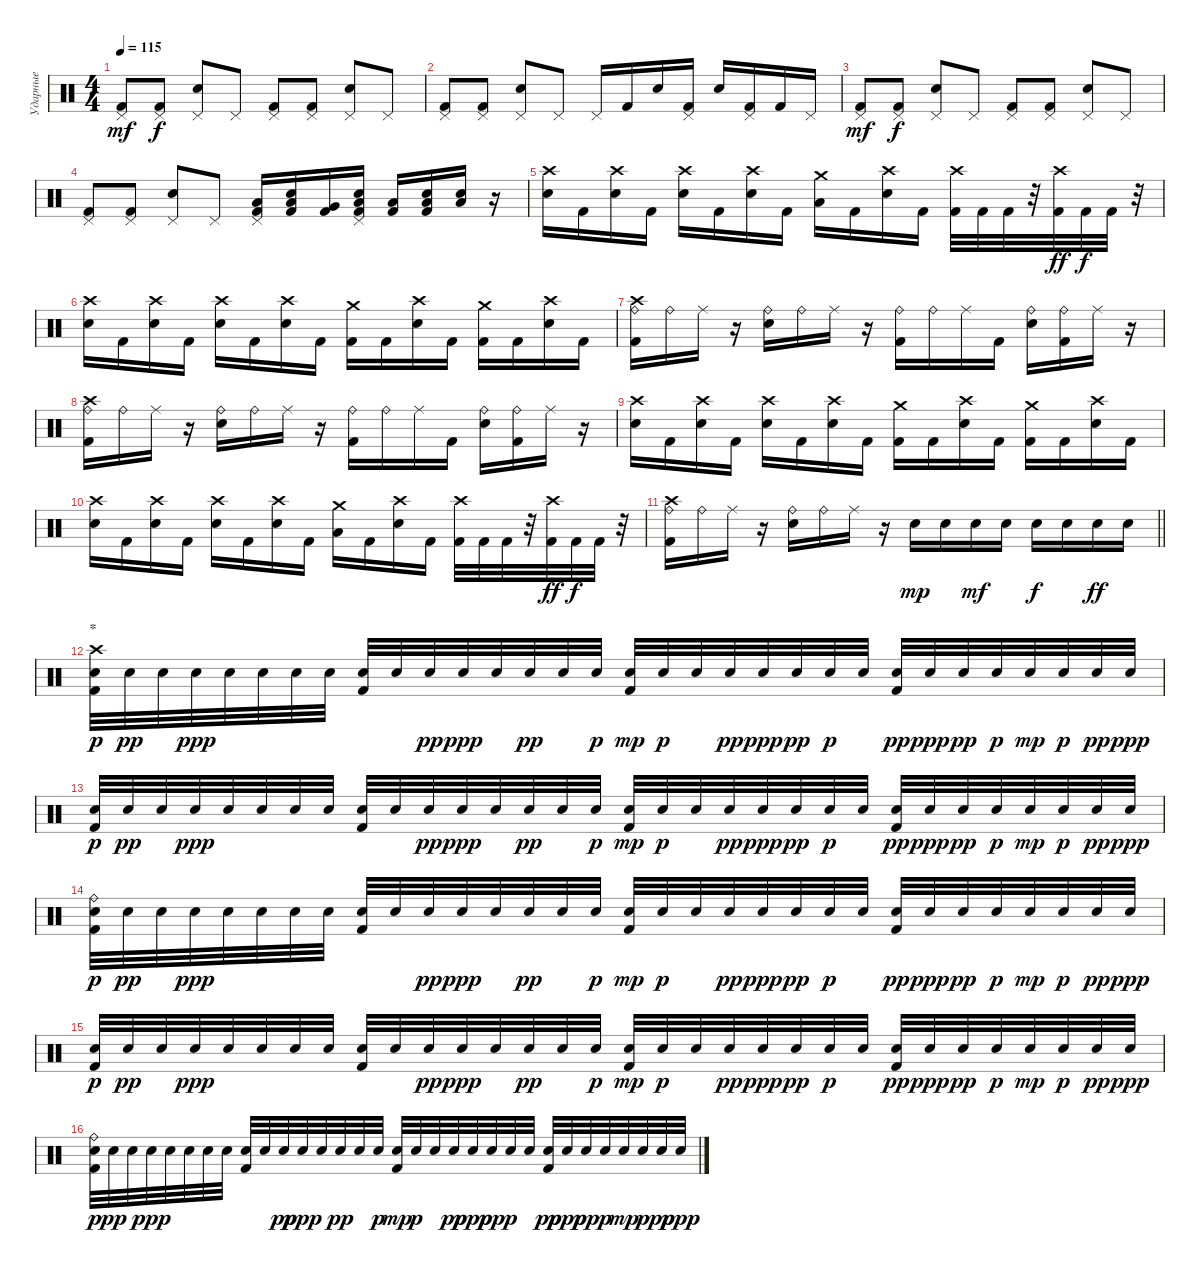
\track ("Ударные" "Ударные") {instrument percussion}
\staff {score}
\articulation defaults
\ts (4 4)
\tempo 115
\clef neutral
\ks c
("Pedal Hi-Hat (hit)" "Kick (hit) 2").8{dy mf} ("Pedal Hi-Hat (hit)" "Kick (hit) 2").8{dy f} ("Pedal Hi-Hat (hit)" "Electric Snare (hit)").8 "Pedal Hi-Hat (hit)".8 ("Pedal Hi-Hat (hit)" "Kick (hit) 2").8 ("Pedal Hi-Hat (hit)" "Kick (hit) 2").8 ("Pedal Hi-Hat (hit)" "Electric Snare (hit)").8 "Pedal Hi-Hat (hit)".8 |
("Pedal Hi-Hat (hit)" "Kick (hit) 2").8 ("Pedal Hi-Hat (hit)" "Kick (hit) 2").8 ("Pedal Hi-Hat (hit)" "Electric Snare (hit)").8 "Pedal Hi-Hat (hit)".8 "Pedal Hi-Hat (hit)".16 "Kick (hit) 2".16 "Electric Snare (hit)".16 ("Pedal Hi-Hat (hit)" "Kick (hit) 2").16 "Electric Snare (hit)".16 ("Pedal Hi-Hat (hit)" "Kick (hit) 2").16 "Kick (hit) 2".16 "Pedal Hi-Hat (hit)".16 |
("Pedal Hi-Hat (hit)" "Kick (hit) 2").8{dy mf} ("Pedal Hi-Hat (hit)" "Kick (hit) 2").8{dy f} ("Pedal Hi-Hat (hit)" "Electric Snare (hit)").8 "Pedal Hi-Hat (hit)".8 ("Pedal Hi-Hat (hit)" "Kick (hit) 2").8 ("Pedal Hi-Hat (hit)" "Kick (hit) 2").8 ("Pedal Hi-Hat (hit)" "Electric Snare (hit)").8 "Pedal Hi-Hat (hit)".8 |
("Pedal Hi-Hat (hit)" "Kick (hit) 2").8 ("Pedal Hi-Hat (hit)" "Kick (hit) 2").8 ("Pedal Hi-Hat (hit)" "Electric Snare (hit)").8 "Pedal Hi-Hat (hit)".8 ("Pedal Hi-Hat (hit)" "Low Floor Tom (hit)" "Kick (hit) 2").16 ("Low Floor Tom (hit)" "Electric Snare (hit)" "Kick (hit) 2").16 ("Very Low Tom (hit)" "Kick (hit) 2").16 ("Pedal Hi-Hat (hit)" "Low Floor Tom (hit)" "Electric Snare (hit)" "Kick (hit) 2").16 ("Low Floor Tom (hit)" "Kick (hit) 2").16 ("Low Floor Tom (hit)" "Electric Snare (hit)" "Kick (hit) 2").16 ("Low Floor Tom (hit)" "Electric Snare (hit)").16 r.16 |
("Crash high (hit)" "Electric Snare (hit)").16 "Kick (hit) 2".16 ("Crash high (hit)" "Electric Snare (hit)").16 "Kick (hit) 2".16 ("Crash high (hit)" "Electric Snare (hit)").16 "Kick (hit) 2".16 ("Crash high (hit)" "Electric Snare (hit)").16 "Kick (hit) 2".16 ("Crash medium (hit)" "Low Floor Tom (hit)").16 "Kick (hit) 2".16 ("Crash high (hit)" "Electric Snare (hit)").16 "Kick (hit) 2".16 ("Crash high (hit)" "Kick (hit) 2").32 "Kick (hit) 2".32 "Kick (hit) 2".32 r.32 ("Crash high (hit)" "Kick (hit) 2").32{dy ff} "Kick (hit) 2".32{dy f} "Kick (hit) 2".32 r.32 |
("Crash high (hit)" "Electric Snare (hit)").16 "Kick (hit) 2".16 ("Crash high (hit)" "Electric Snare (hit)").16 "Kick (hit) 2".16 ("Crash high (hit)" "Electric Snare (hit)").16 "Kick (hit) 2".16 ("Crash high (hit)" "Electric Snare (hit)").16 "Kick (hit) 2".16 ("Crash medium (hit)" "Kick (hit) 2").16 "Kick (hit) 2".16 ("Crash high (hit)" "Electric Snare (hit)").16 "Kick (hit) 2".16 ("Crash medium (hit)" "Kick (hit) 2").16 "Kick (hit) 2".16 ("Crash high (hit)" "Electric Snare (hit)").16 "Kick (hit) 2".16 |
("Crash high (hit)" "Ride (bell)" "Kick (hit) 2").16 "Ride (bell)".16 "Ride (middle)".16 r.16 ("Ride (bell)" "Electric Snare (hit)").16 "Ride (bell)".16 "Ride (middle)".16 r.16 ("Ride (bell)" "Kick (hit) 2").16 "Ride (bell)".16 "Ride (middle)".16 "Kick (hit) 2".16 ("Ride (bell)" "Electric Snare (hit)").16 ("Ride (bell)" "Kick (hit) 2").16 "Ride (middle)".16 r.16 |
("Crash high (hit)" "Ride (bell)" "Kick (hit) 2").16 "Ride (bell)".16 "Ride (middle)".16 r.16 ("Ride (bell)" "Electric Snare (hit)").16 "Ride (bell)".16 "Ride (middle)".16 r.16 ("Ride (bell)" "Kick (hit) 2").16 "Ride (bell)".16 "Ride (middle)".16 "Kick (hit) 2".16 ("Ride (bell)" "Electric Snare (hit)").16 ("Ride (bell)" "Kick (hit) 2").16 "Ride (middle)".16 r.16 |
("Crash high (hit)" "Electric Snare (hit)").16 "Kick (hit) 2".16 ("Crash high (hit)" "Electric Snare (hit)").16 "Kick (hit) 2".16 ("Crash high (hit)" "Electric Snare (hit)").16 "Kick (hit) 2".16 ("Crash high (hit)" "Electric Snare (hit)").16 "Kick (hit) 2".16 ("Crash medium (hit)" "Kick (hit) 2").16 "Kick (hit) 2".16 ("Crash high (hit)" "Electric Snare (hit)").16 "Kick (hit) 2".16 ("Crash medium (hit)" "Kick (hit) 2").16 "Kick (hit) 2".16 ("Crash high (hit)" "Electric Snare (hit)").16 "Kick (hit) 2".16 |
("Crash high (hit)" "Electric Snare (hit)").16 "Kick (hit) 2".16 ("Crash high (hit)" "Electric Snare (hit)").16 "Kick (hit) 2".16 ("Crash high (hit)" "Electric Snare (hit)").16 "Kick (hit) 2".16 ("Crash high (hit)" "Electric Snare (hit)").16 "Kick (hit) 2".16 ("Crash medium (hit)" "Low Floor Tom (hit)").16 "Kick (hit) 2".16 ("Crash high (hit)" "Electric Snare (hit)").16 "Kick (hit) 2".16 ("Crash high (hit)" "Kick (hit) 2").32 "Kick (hit) 2".32 "Kick (hit) 2".32 r.32 ("Crash high (hit)" "Kick (hit) 2").32{dy ff} "Kick (hit) 2".32{dy f} "Kick (hit) 2".32 r.32 |
\barLineRight lightlight
("Crash high (hit)" "Ride (bell)" "Kick (hit) 2").16 "Ride (bell)".16 "Ride (middle)".16 r.16 ("Ride (bell)" "Electric Snare (hit)").16 "Ride (bell)".16 "Ride (middle)".16 r.16 "Electric Snare (hit)".16{dy mp} "Electric Snare (hit)".16 "Electric Snare (hit)".16{dy mf} "Electric Snare (hit)".16 "Electric Snare (hit)".16{dy f} "Electric Snare (hit)".16 "Electric Snare (hit)".16{dy ff} "Electric Snare (hit)".16 |
\section ("" "*")
("Crash high (hit)" "Electric Snare (hit)" "Kick (hit) 2").32{dy p} "Electric Snare (hit)".32{dy pp} "Electric Snare (hit)".32 "Electric Snare (hit)".32{dy ppp} "Electric Snare (hit)".32 "Electric Snare (hit)".32 "Electric Snare (hit)".32 "Electric Snare (hit)".32 ("Electric Snare (hit)" "Kick (hit) 2").32 "Electric Snare (hit)".32 "Electric Snare (hit)".32{dy pp} "Electric Snare (hit)".32{dy ppp} "Electric Snare (hit)".32 "Electric Snare (hit)".32{dy pp} "Electric Snare (hit)".32 "Electric Snare (hit)".32{dy p} ("Electric Snare (hit)" "Kick (hit) 2").32{dy mp} "Electric Snare (hit)".32{dy p} "Electric Snare (hit)".32 "Electric Snare (hit)".32{dy pp} "Electric Snare (hit)".32{dy ppp} "Electric Snare (hit)".32{dy pp} "Electric Snare (hit)".32{dy p} "Electric Snare (hit)".32 ("Electric Snare (hit)" "Kick (hit) 2").32{dy pp} "Electric Snare (hit)".32{dy ppp} "Electric Snare (hit)".32{dy pp} "Electric Snare (hit)".32{dy p} "Electric Snare (hit)".32{dy mp} "Electric Snare (hit)".32{dy p} "Electric Snare (hit)".32{dy pp} "Electric Snare (hit)".32{dy ppp} |
("Electric Snare (hit)" "Kick (hit) 2").32{dy p} "Electric Snare (hit)".32{dy pp} "Electric Snare (hit)".32 "Electric Snare (hit)".32{dy ppp} "Electric Snare (hit)".32 "Electric Snare (hit)".32 "Electric Snare (hit)".32 "Electric Snare (hit)".32 ("Electric Snare (hit)" "Kick (hit) 2").32 "Electric Snare (hit)".32 "Electric Snare (hit)".32{dy pp} "Electric Snare (hit)".32{dy ppp} "Electric Snare (hit)".32 "Electric Snare (hit)".32{dy pp} "Electric Snare (hit)".32 "Electric Snare (hit)".32{dy p} ("Electric Snare (hit)" "Kick (hit) 2").32{dy mp} "Electric Snare (hit)".32{dy p} "Electric Snare (hit)".32 "Electric Snare (hit)".32{dy pp} "Electric Snare (hit)".32{dy ppp} "Electric Snare (hit)".32{dy pp} "Electric Snare (hit)".32{dy p} "Electric Snare (hit)".32 ("Electric Snare (hit)" "Kick (hit) 2").32{dy pp} "Electric Snare (hit)".32{dy ppp} "Electric Snare (hit)".32{dy pp} "Electric Snare (hit)".32{dy p} "Electric Snare (hit)".32{dy mp} "Electric Snare (hit)".32{dy p} "Electric Snare (hit)".32{dy pp} "Electric Snare (hit)".32{dy ppp} |
("Ride (bell)" "Electric Snare (hit)" "Kick (hit) 2").32{dy p} "Electric Snare (hit)".32{dy pp} "Electric Snare (hit)".32 "Electric Snare (hit)".32{dy ppp} "Electric Snare (hit)".32 "Electric Snare (hit)".32 "Electric Snare (hit)".32 "Electric Snare (hit)".32 ("Electric Snare (hit)" "Kick (hit) 2").32 "Electric Snare (hit)".32 "Electric Snare (hit)".32{dy pp} "Electric Snare (hit)".32{dy ppp} "Electric Snare (hit)".32 "Electric Snare (hit)".32{dy pp} "Electric Snare (hit)".32 "Electric Snare (hit)".32{dy p} ("Electric Snare (hit)" "Kick (hit) 2").32{dy mp} "Electric Snare (hit)".32{dy p} "Electric Snare (hit)".32 "Electric Snare (hit)".32{dy pp} "Electric Snare (hit)".32{dy ppp} "Electric Snare (hit)".32{dy pp} "Electric Snare (hit)".32{dy p} "Electric Snare (hit)".32 ("Electric Snare (hit)" "Kick (hit) 2").32{dy pp} "Electric Snare (hit)".32{dy ppp} "Electric Snare (hit)".32{dy pp} "Electric Snare (hit)".32{dy p} "Electric Snare (hit)".32{dy mp} "Electric Snare (hit)".32{dy p} "Electric Snare (hit)".32{dy pp} "Electric Snare (hit)".32{dy ppp} |
("Electric Snare (hit)" "Kick (hit) 2").32{dy p} "Electric Snare (hit)".32{dy pp} "Electric Snare (hit)".32 "Electric Snare (hit)".32{dy ppp} "Electric Snare (hit)".32 "Electric Snare (hit)".32 "Electric Snare (hit)".32 "Electric Snare (hit)".32 ("Electric Snare (hit)" "Kick (hit) 2").32 "Electric Snare (hit)".32 "Electric Snare (hit)".32{dy pp} "Electric Snare (hit)".32{dy ppp} "Electric Snare (hit)".32 "Electric Snare (hit)".32{dy pp} "Electric Snare (hit)".32 "Electric Snare (hit)".32{dy p} ("Electric Snare (hit)" "Kick (hit) 2").32{dy mp} "Electric Snare (hit)".32{dy p} "Electric Snare (hit)".32 "Electric Snare (hit)".32{dy pp} "Electric Snare (hit)".32{dy ppp} "Electric Snare (hit)".32{dy pp} "Electric Snare (hit)".32{dy p} "Electric Snare (hit)".32 ("Electric Snare (hit)" "Kick (hit) 2").32{dy pp} "Electric Snare (hit)".32{dy ppp} "Electric Snare (hit)".32{dy pp} "Electric Snare (hit)".32{dy p} "Electric Snare (hit)".32{dy mp} "Electric Snare (hit)".32{dy p} "Electric Snare (hit)".32{dy pp} "Electric Snare (hit)".32{dy ppp} |
("Ride (bell)" "Electric Snare (hit)" "Kick (hit) 2").32{dy p} "Electric Snare (hit)".32{dy pp} "Electric Snare (hit)".32 "Electric Snare (hit)".32{dy ppp} "Electric Snare (hit)".32 "Electric Snare (hit)".32 "Electric Snare (hit)".32 "Electric Snare (hit)".32 ("Electric Snare (hit)" "Kick (hit) 2").32 "Electric Snare (hit)".32 "Electric Snare (hit)".32{dy pp} "Electric Snare (hit)".32{dy ppp} "Electric Snare (hit)".32 "Electric Snare (hit)".32{dy pp} "Electric Snare (hit)".32 "Electric Snare (hit)".32{dy p} ("Electric Snare (hit)" "Kick (hit) 2").32{dy mp} "Electric Snare (hit)".32{dy p} "Electric Snare (hit)".32 "Electric Snare (hit)".32{dy pp} "Electric Snare (hit)".32{dy ppp} "Electric Snare (hit)".32{dy pp} "Electric Snare (hit)".32{dy p} "Electric Snare (hit)".32 ("Electric Snare (hit)" "Kick (hit) 2").32{dy pp} "Electric Snare (hit)".32{dy ppp} "Electric Snare (hit)".32{dy pp} "Electric Snare (hit)".32{dy p} "Electric Snare (hit)".32{dy mp} "Electric Snare (hit)".32{dy p} "Electric Snare (hit)".32{dy pp} "Electric Snare (hit)".32{dy ppp}
